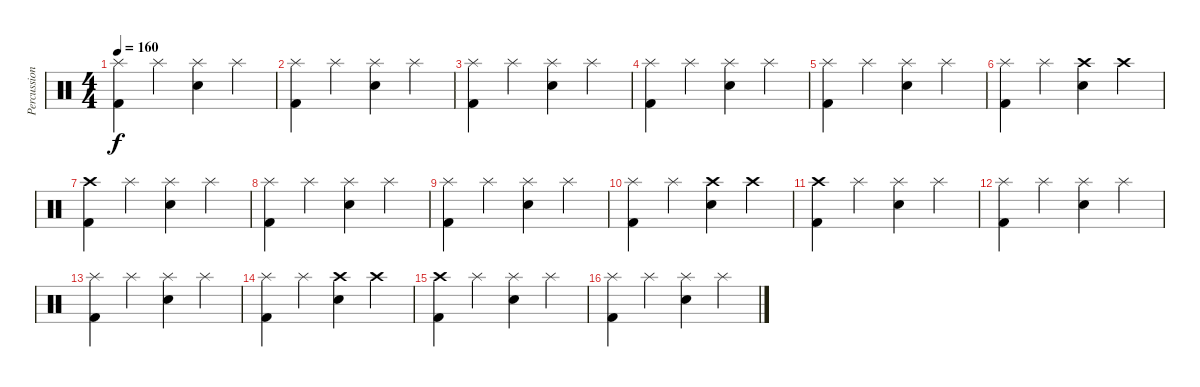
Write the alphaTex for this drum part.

\track ("Percussion" "Percussion") {instrument percussion}
\staff {score}
\articulation defaults
\ts (4 4)
\tempo 160
\clef neutral
\ks c
("Splash (hit)" "Kick (hit) 2").4{dy f} "Splash (hit)".4 ("Splash (hit)" "Electric Snare (hit)").4 "Splash (hit)".4 |
("Splash (hit)" "Kick (hit) 2").4 "Splash (hit)".4 ("Splash (hit)" "Electric Snare (hit)").4 "Splash (hit)".4 |
("Splash (hit)" "Kick (hit) 2").4 "Splash (hit)".4 ("Splash (hit)" "Electric Snare (hit)").4 "Splash (hit)".4 |
("Splash (hit)" "Kick (hit) 2").4 "Splash (hit)".4 ("Splash (hit)" "Electric Snare (hit)").4 "Splash (hit)".4 |
("Splash (hit)" "Kick (hit) 2").4 "Splash (hit)".4 ("Splash (hit)" "Electric Snare (hit)").4 "Splash (hit)".4 |
("Splash (hit)" "Kick (hit) 2").4 "Splash (hit)".4 ("Crash high (hit)" "Electric Snare (hit)").4 "Crash high (hit)".4 |
("Crash high (hit)" "Kick (hit) 2").4 "Splash (hit)".4 ("Splash (hit)" "Electric Snare (hit)").4 "Splash (hit)".4 |
("Splash (hit)" "Kick (hit) 2").4 "Splash (hit)".4 ("Splash (hit)" "Electric Snare (hit)").4 "Splash (hit)".4 |
("Splash (hit)" "Kick (hit) 2").4 "Splash (hit)".4 ("Splash (hit)" "Electric Snare (hit)").4 "Splash (hit)".4 |
("Splash (hit)" "Kick (hit) 2").4 "Splash (hit)".4 ("Crash high (hit)" "Electric Snare (hit)").4 "Crash high (hit)".4 |
("Crash high (hit)" "Kick (hit) 2").4 "Splash (hit)".4 ("Splash (hit)" "Electric Snare (hit)").4 "Splash (hit)".4 |
("Splash (hit)" "Kick (hit) 2").4 "Splash (hit)".4 ("Splash (hit)" "Electric Snare (hit)").4 "Splash (hit)".4 |
("Splash (hit)" "Kick (hit) 2").4 "Splash (hit)".4 ("Splash (hit)" "Electric Snare (hit)").4 "Splash (hit)".4 |
("Splash (hit)" "Kick (hit) 2").4 "Splash (hit)".4 ("Crash high (hit)" "Electric Snare (hit)").4 "Crash high (hit)".4 |
("Crash high (hit)" "Kick (hit) 2").4 "Splash (hit)".4 ("Splash (hit)" "Electric Snare (hit)").4 "Splash (hit)".4 |
("Splash (hit)" "Kick (hit) 2").4 "Splash (hit)".4 ("Splash (hit)" "Electric Snare (hit)").4 "Splash (hit)".4
